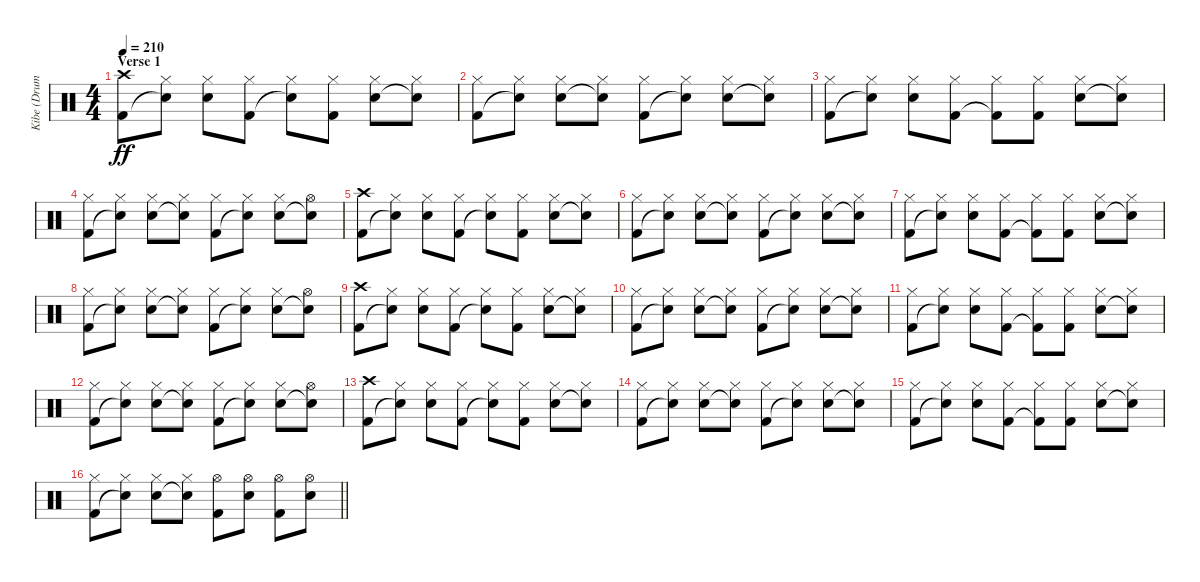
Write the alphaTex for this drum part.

\track ("Kibe (Drums)" "Kibe (Drum") {instrument percussion}
\staff {score}
\articulation defaults
\ts (4 4)
\section ("" "Verse 1")
\tempo 210
\clef neutral
\ks c
("Crash high (hit)" "Kick (hit) 2").8{dy ff} ("Hi-Hat (closed)" "Snare (hit)"{t}).8 ("Hi-Hat (closed)" "Snare (hit) 2").8 ("Hi-Hat (closed)" "Kick (hit) 2").8 ("Hi-Hat (closed)" "Snare (hit)"{t}).8 ("Hi-Hat (closed)" "Kick (hit) 2").8 ("Hi-Hat (closed)" "Snare (hit) 2").8 ("Hi-Hat (closed)" "Snare (hit)"{t}).8 |
("Hi-Hat (closed)" "Kick (hit) 2").8 ("Hi-Hat (closed)" "Snare (hit)"{t}).8 ("Hi-Hat (closed)" "Snare (hit) 2").8 ("Hi-Hat (closed)" "Snare (hit)"{t}).8 ("Hi-Hat (closed)" "Kick (hit) 2").8 ("Hi-Hat (closed)" "Snare (hit)"{t}).8 ("Hi-Hat (closed)" "Snare (hit) 2").8 ("Hi-Hat (closed)" "Snare (hit)"{t}).8 |
("Hi-Hat (closed)" "Kick (hit) 2").8 ("Hi-Hat (closed)" "Snare (hit)"{t}).8 ("Hi-Hat (closed)" "Snare (hit) 2").8 ("Hi-Hat (closed)" "Kick (hit) 2").8 ("Hi-Hat (closed)" "Kick (hit) 2"{t}).8 ("Hi-Hat (closed)" "Kick (hit) 2").8 ("Hi-Hat (closed)" "Snare (hit) 2").8 ("Hi-Hat (closed)" "Snare (hit)"{t}).8 |
("Hi-Hat (closed)" "Kick (hit) 2").8 ("Hi-Hat (closed)" "Snare (hit)"{t}).8 ("Hi-Hat (closed)" "Snare (hit) 2").8 ("Hi-Hat (closed)" "Snare (hit)"{t}).8 ("Hi-Hat (closed)" "Kick (hit) 2").8 ("Hi-Hat (closed)" "Snare (hit)"{t}).8 ("Hi-Hat (closed)" "Snare (hit) 2").8 ("Hi-Hat (open)" "Snare (hit)"{t}).8 |
("Crash high (hit)" "Kick (hit) 2").8 ("Hi-Hat (closed)" "Snare (hit)"{t}).8 ("Hi-Hat (closed)" "Snare (hit) 2").8 ("Hi-Hat (closed)" "Kick (hit) 2").8 ("Hi-Hat (closed)" "Snare (hit)"{t}).8 ("Hi-Hat (closed)" "Kick (hit) 2").8 ("Hi-Hat (closed)" "Snare (hit) 2").8 ("Hi-Hat (closed)" "Snare (hit)"{t}).8 |
("Hi-Hat (closed)" "Kick (hit) 2").8 ("Hi-Hat (closed)" "Snare (hit)"{t}).8 ("Hi-Hat (closed)" "Snare (hit) 2").8 ("Hi-Hat (closed)" "Snare (hit)"{t}).8 ("Hi-Hat (closed)" "Kick (hit) 2").8 ("Hi-Hat (closed)" "Snare (hit)"{t}).8 ("Hi-Hat (closed)" "Snare (hit) 2").8 ("Hi-Hat (closed)" "Snare (hit)"{t}).8 |
("Hi-Hat (closed)" "Kick (hit) 2").8 ("Hi-Hat (closed)" "Snare (hit)"{t}).8 ("Hi-Hat (closed)" "Snare (hit) 2").8 ("Hi-Hat (closed)" "Kick (hit) 2").8 ("Hi-Hat (closed)" "Kick (hit) 2"{t}).8 ("Hi-Hat (closed)" "Kick (hit) 2").8 ("Hi-Hat (closed)" "Snare (hit) 2").8 ("Hi-Hat (closed)" "Snare (hit)"{t}).8 |
("Hi-Hat (closed)" "Kick (hit) 2").8 ("Hi-Hat (closed)" "Snare (hit)"{t}).8 ("Hi-Hat (closed)" "Snare (hit) 2").8 ("Hi-Hat (closed)" "Snare (hit)"{t}).8 ("Hi-Hat (closed)" "Kick (hit) 2").8 ("Hi-Hat (closed)" "Snare (hit)"{t}).8 ("Hi-Hat (closed)" "Snare (hit) 2").8 ("Hi-Hat (open)" "Snare (hit)"{t}).8 |
("Crash high (hit)" "Kick (hit) 2").8 ("Hi-Hat (closed)" "Snare (hit)"{t}).8 ("Hi-Hat (closed)" "Snare (hit) 2").8 ("Hi-Hat (closed)" "Kick (hit) 2").8 ("Hi-Hat (closed)" "Snare (hit)"{t}).8 ("Hi-Hat (closed)" "Kick (hit) 2").8 ("Hi-Hat (closed)" "Snare (hit) 2").8 ("Hi-Hat (closed)" "Snare (hit)"{t}).8 |
("Hi-Hat (closed)" "Kick (hit) 2").8 ("Hi-Hat (closed)" "Snare (hit)"{t}).8 ("Hi-Hat (closed)" "Snare (hit) 2").8 ("Hi-Hat (closed)" "Snare (hit)"{t}).8 ("Hi-Hat (closed)" "Kick (hit) 2").8 ("Hi-Hat (closed)" "Snare (hit)"{t}).8 ("Hi-Hat (closed)" "Snare (hit) 2").8 ("Hi-Hat (closed)" "Snare (hit)"{t}).8 |
("Hi-Hat (closed)" "Kick (hit) 2").8 ("Hi-Hat (closed)" "Snare (hit)"{t}).8 ("Hi-Hat (closed)" "Snare (hit) 2").8 ("Hi-Hat (closed)" "Kick (hit) 2").8 ("Hi-Hat (closed)" "Kick (hit) 2"{t}).8 ("Hi-Hat (closed)" "Kick (hit) 2").8 ("Hi-Hat (closed)" "Snare (hit) 2").8 ("Hi-Hat (closed)" "Snare (hit)"{t}).8 |
("Hi-Hat (closed)" "Kick (hit) 2").8 ("Hi-Hat (closed)" "Snare (hit)"{t}).8 ("Hi-Hat (closed)" "Snare (hit) 2").8 ("Hi-Hat (closed)" "Snare (hit)"{t}).8 ("Hi-Hat (closed)" "Kick (hit) 2").8 ("Hi-Hat (closed)" "Snare (hit)"{t}).8 ("Hi-Hat (closed)" "Snare (hit) 2").8 ("Hi-Hat (open)" "Snare (hit)"{t}).8 |
("Crash high (hit)" "Kick (hit) 2").8 ("Hi-Hat (closed)" "Snare (hit)"{t}).8 ("Hi-Hat (closed)" "Snare (hit) 2").8 ("Hi-Hat (closed)" "Kick (hit) 2").8 ("Hi-Hat (closed)" "Snare (hit)"{t}).8 ("Hi-Hat (closed)" "Kick (hit) 2").8 ("Hi-Hat (closed)" "Snare (hit) 2").8 ("Hi-Hat (closed)" "Snare (hit)"{t}).8 |
("Hi-Hat (closed)" "Kick (hit) 2").8 ("Hi-Hat (closed)" "Snare (hit)"{t}).8 ("Hi-Hat (closed)" "Snare (hit) 2").8 ("Hi-Hat (closed)" "Snare (hit)"{t}).8 ("Hi-Hat (closed)" "Kick (hit) 2").8 ("Hi-Hat (closed)" "Snare (hit)"{t}).8 ("Hi-Hat (closed)" "Snare (hit) 2").8 ("Hi-Hat (closed)" "Snare (hit)"{t}).8 |
("Hi-Hat (closed)" "Kick (hit) 2").8 ("Hi-Hat (closed)" "Snare (hit)"{t}).8 ("Hi-Hat (closed)" "Snare (hit) 2").8 ("Hi-Hat (closed)" "Kick (hit) 2").8 ("Hi-Hat (closed)" "Kick (hit) 2"{t}).8 ("Hi-Hat (closed)" "Kick (hit) 2").8 ("Hi-Hat (closed)" "Snare (hit) 2").8 ("Hi-Hat (closed)" "Snare (hit)"{t}).8 |
\barLineRight lightlight
("Hi-Hat (closed)" "Kick (hit) 2").8 ("Hi-Hat (closed)" "Snare (hit)"{t}).8 ("Hi-Hat (closed)" "Snare (hit) 2").8 ("Hi-Hat (closed)" "Snare (hit)"{t}).8 ("Hi-Hat (open)" "Kick (hit) 2").8 ("Hi-Hat (open)" "Snare (hit) 2").8 ("Hi-Hat (open)" "Kick (hit) 2").8 ("Hi-Hat (open)" "Snare (hit) 2").8
